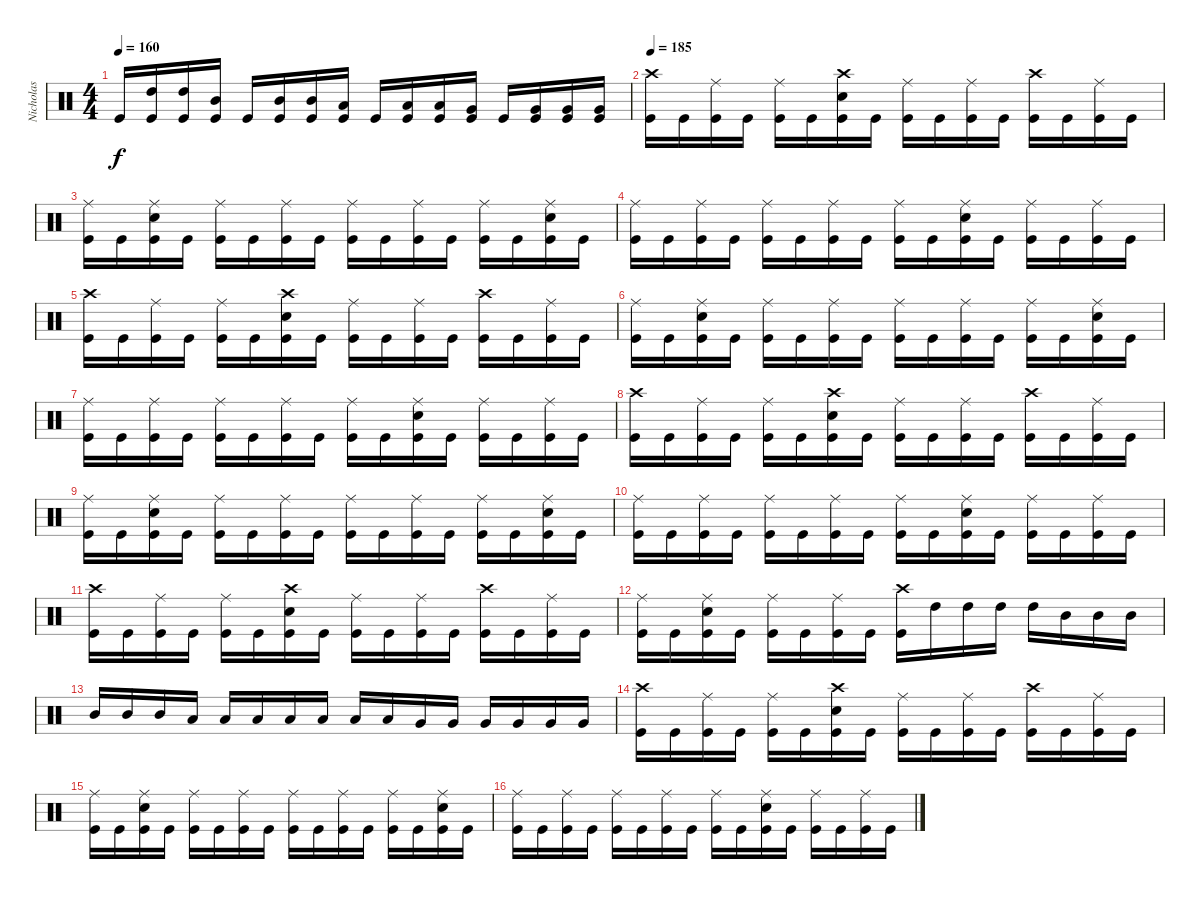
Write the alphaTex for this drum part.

\track ("Nicholas" "Nicholas") {instrument percussion}
\staff {score}
\articulation defaults
\ts (4 4)
\tempo 160
\clef neutral
\ks c "Kick (hit)".16{dy f}
("High Tom (hit)" "Kick (hit)").16 ("High Tom (hit)" "Kick (hit)").16 ("Mid Tom (hit)" "Kick (hit)").16 "Kick (hit)".16 ("Mid Tom (hit)" "Kick (hit)").16 ("Mid Tom (hit)" "Kick (hit)").16 ("Low Tom (hit)" "Kick (hit)").16 "Kick (hit)".16 ("Low Tom (hit)" "Kick (hit)").16 ("Low Tom (hit)" "Kick (hit)").16 ("Very Low Tom (hit)" "Kick (hit)").16 "Kick (hit)".16 ("Very Low Tom (hit)" "Kick (hit)").16 ("Very Low Tom (hit)" "Kick (hit)").16 ("Very Low Tom (hit)" "Kick (hit)").16 |
\tempo 185
("Crash high (hit)" "Kick (hit)").16 "Kick (hit)".16 ("Ride (middle)" "Kick (hit)").16 "Kick (hit)".16 ("Ride (middle)" "Kick (hit)").16 "Kick (hit)".16 ("Crash high (hit)" "Electric Snare (hit)" "Kick (hit)").16 "Kick (hit)".16 ("Ride (middle)" "Kick (hit)").16 "Kick (hit)".16 ("Ride (middle)" "Kick (hit)").16 "Kick (hit)".16 ("Crash high (hit)" "Kick (hit)").16 "Kick (hit)".16 ("Ride (middle)" "Kick (hit)").16 "Kick (hit)".16 |
("Ride (middle)" "Kick (hit)").16 "Kick (hit)".16 ("Ride (middle)" "Electric Snare (hit)" "Kick (hit)").16 "Kick (hit)".16 ("Ride (middle)" "Kick (hit)").16 "Kick (hit)".16 ("Ride (middle)" "Kick (hit)").16 "Kick (hit)".16 ("Ride (middle)" "Kick (hit)").16 "Kick (hit)".16 ("Ride (middle)" "Kick (hit)").16 "Kick (hit)".16 ("Ride (middle)" "Kick (hit)").16 "Kick (hit)".16 ("Ride (middle)" "Electric Snare (hit)" "Kick (hit)").16 "Kick (hit)".16 |
("Ride (middle)" "Kick (hit)").16 "Kick (hit)".16 ("Ride (middle)" "Kick (hit)").16 "Kick (hit)".16 ("Ride (middle)" "Kick (hit)").16 "Kick (hit)".16 ("Ride (middle)" "Kick (hit)").16 "Kick (hit)".16 ("Ride (middle)" "Kick (hit)").16 "Kick (hit)".16 ("Ride (middle)" "Electric Snare (hit)" "Kick (hit)").16 "Kick (hit)".16 ("Ride (middle)" "Kick (hit)").16 "Kick (hit)".16 ("Ride (middle)" "Kick (hit)").16 "Kick (hit)".16 |
("Crash high (hit)" "Kick (hit)").16 "Kick (hit)".16 ("Ride (middle)" "Kick (hit)").16 "Kick (hit)".16 ("Ride (middle)" "Kick (hit)").16 "Kick (hit)".16 ("Crash high (hit)" "Electric Snare (hit)" "Kick (hit)").16 "Kick (hit)".16 ("Ride (middle)" "Kick (hit)").16 "Kick (hit)".16 ("Ride (middle)" "Kick (hit)").16 "Kick (hit)".16 ("Crash high (hit)" "Kick (hit)").16 "Kick (hit)".16 ("Ride (middle)" "Kick (hit)").16 "Kick (hit)".16 |
("Ride (middle)" "Kick (hit)").16 "Kick (hit)".16 ("Ride (middle)" "Electric Snare (hit)" "Kick (hit)").16 "Kick (hit)".16 ("Ride (middle)" "Kick (hit)").16 "Kick (hit)".16 ("Ride (middle)" "Kick (hit)").16 "Kick (hit)".16 ("Ride (middle)" "Kick (hit)").16 "Kick (hit)".16 ("Ride (middle)" "Kick (hit)").16 "Kick (hit)".16 ("Ride (middle)" "Kick (hit)").16 "Kick (hit)".16 ("Ride (middle)" "Electric Snare (hit)" "Kick (hit)").16 "Kick (hit)".16 |
("Ride (middle)" "Kick (hit)").16 "Kick (hit)".16 ("Ride (middle)" "Kick (hit)").16 "Kick (hit)".16 ("Ride (middle)" "Kick (hit)").16 "Kick (hit)".16 ("Ride (middle)" "Kick (hit)").16 "Kick (hit)".16 ("Ride (middle)" "Kick (hit)").16 "Kick (hit)".16 ("Ride (middle)" "Electric Snare (hit)" "Kick (hit)").16 "Kick (hit)".16 ("Ride (middle)" "Kick (hit)").16 "Kick (hit)".16 ("Ride (middle)" "Kick (hit)").16 "Kick (hit)".16 |
("Crash high (hit)" "Kick (hit)").16 "Kick (hit)".16 ("Ride (middle)" "Kick (hit)").16 "Kick (hit)".16 ("Ride (middle)" "Kick (hit)").16 "Kick (hit)".16 ("Crash high (hit)" "Electric Snare (hit)" "Kick (hit)").16 "Kick (hit)".16 ("Ride (middle)" "Kick (hit)").16 "Kick (hit)".16 ("Ride (middle)" "Kick (hit)").16 "Kick (hit)".16 ("Crash high (hit)" "Kick (hit)").16 "Kick (hit)".16 ("Ride (middle)" "Kick (hit)").16 "Kick (hit)".16 |
("Ride (middle)" "Kick (hit)").16 "Kick (hit)".16 ("Ride (middle)" "Electric Snare (hit)" "Kick (hit)").16 "Kick (hit)".16 ("Ride (middle)" "Kick (hit)").16 "Kick (hit)".16 ("Ride (middle)" "Kick (hit)").16 "Kick (hit)".16 ("Ride (middle)" "Kick (hit)").16 "Kick (hit)".16 ("Ride (middle)" "Kick (hit)").16 "Kick (hit)".16 ("Ride (middle)" "Kick (hit)").16 "Kick (hit)".16 ("Ride (middle)" "Electric Snare (hit)" "Kick (hit)").16 "Kick (hit)".16 |
("Ride (middle)" "Kick (hit)").16 "Kick (hit)".16 ("Ride (middle)" "Kick (hit)").16 "Kick (hit)".16 ("Ride (middle)" "Kick (hit)").16 "Kick (hit)".16 ("Ride (middle)" "Kick (hit)").16 "Kick (hit)".16 ("Ride (middle)" "Kick (hit)").16 "Kick (hit)".16 ("Ride (middle)" "Electric Snare (hit)" "Kick (hit)").16 "Kick (hit)".16 ("Ride (middle)" "Kick (hit)").16 "Kick (hit)".16 ("Ride (middle)" "Kick (hit)").16 "Kick (hit)".16 |
("Crash high (hit)" "Kick (hit)").16 "Kick (hit)".16 ("Ride (middle)" "Kick (hit)").16 "Kick (hit)".16 ("Ride (middle)" "Kick (hit)").16 "Kick (hit)".16 ("Crash high (hit)" "Electric Snare (hit)" "Kick (hit)").16 "Kick (hit)".16 ("Ride (middle)" "Kick (hit)").16 "Kick (hit)".16 ("Ride (middle)" "Kick (hit)").16 "Kick (hit)".16 ("Crash high (hit)" "Kick (hit)").16 "Kick (hit)".16 ("Ride (middle)" "Kick (hit)").16 "Kick (hit)".16 |
("Ride (middle)" "Kick (hit)").16 "Kick (hit)".16 ("Ride (middle)" "Electric Snare (hit)" "Kick (hit)").16 "Kick (hit)".16 ("Ride (middle)" "Kick (hit)").16 "Kick (hit)".16 ("Ride (middle)" "Kick (hit)").16 "Kick (hit)".16 ("Crash high (hit)" "Kick (hit)").16 "High Tom (hit)".16 "High Tom (hit)".16 "High Tom (hit)".16 "High Tom (hit)".16 "Mid Tom (hit)".16 "Mid Tom (hit)".16 "Mid Tom (hit)".16 |
"Mid Tom (hit)".16 "Mid Tom (hit)".16 "Mid Tom (hit)".16 "Low Tom (hit)".16 "Low Tom (hit)".16 "Low Tom (hit)".16 "Low Tom (hit)".16 "Low Tom (hit)".16 "Low Tom (hit)".16 "Low Tom (hit)".16 "Very Low Tom (hit)".16 "Very Low Tom (hit)".16 "Very Low Tom (hit)".16 "Very Low Tom (hit)".16 "Very Low Tom (hit)".16 "Very Low Tom (hit)".16 |
("Crash high (hit)" "Kick (hit)").16 "Kick (hit)".16 ("Ride (middle)" "Kick (hit)").16 "Kick (hit)".16 ("Ride (middle)" "Kick (hit)").16 "Kick (hit)".16 ("Crash high (hit)" "Electric Snare (hit)" "Kick (hit)").16 "Kick (hit)".16 ("Ride (middle)" "Kick (hit)").16 "Kick (hit)".16 ("Ride (middle)" "Kick (hit)").16 "Kick (hit)".16 ("Crash high (hit)" "Kick (hit)").16 "Kick (hit)".16 ("Ride (middle)" "Kick (hit)").16 "Kick (hit)".16 |
("Ride (middle)" "Kick (hit)").16 "Kick (hit)".16 ("Ride (middle)" "Electric Snare (hit)" "Kick (hit)").16 "Kick (hit)".16 ("Ride (middle)" "Kick (hit)").16 "Kick (hit)".16 ("Ride (middle)" "Kick (hit)").16 "Kick (hit)".16 ("Ride (middle)" "Kick (hit)").16 "Kick (hit)".16 ("Ride (middle)" "Kick (hit)").16 "Kick (hit)".16 ("Ride (middle)" "Kick (hit)").16 "Kick (hit)".16 ("Ride (middle)" "Electric Snare (hit)" "Kick (hit)").16 "Kick (hit)".16 |
("Ride (middle)" "Kick (hit)").16 "Kick (hit)".16 ("Ride (middle)" "Kick (hit)").16 "Kick (hit)".16 ("Ride (middle)" "Kick (hit)").16 "Kick (hit)".16 ("Ride (middle)" "Kick (hit)").16 "Kick (hit)".16 ("Ride (middle)" "Kick (hit)").16 "Kick (hit)".16 ("Ride (middle)" "Electric Snare (hit)" "Kick (hit)").16 "Kick (hit)".16 ("Ride (middle)" "Kick (hit)").16 "Kick (hit)".16 ("Ride (middle)" "Kick (hit)").16 "Kick (hit)".16
